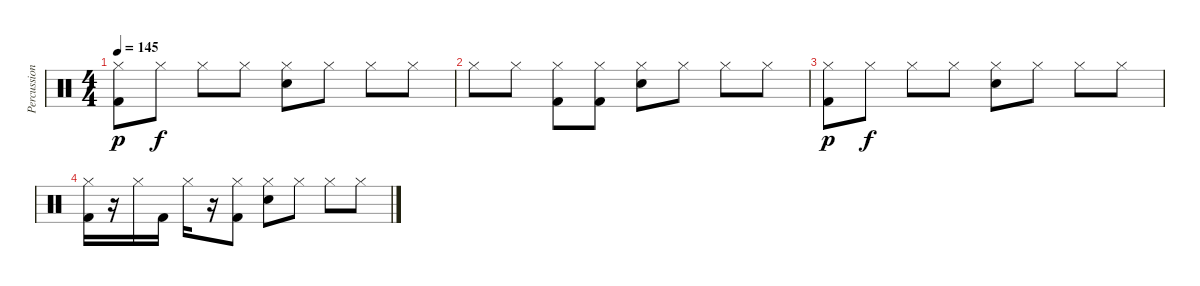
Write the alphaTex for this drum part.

\track ("Percussion" "Percussion") {instrument percussion}
\staff {score}
\articulation defaults
\ts (4 4)
\tempo 145
\clef neutral
\ks c
("Hi-Hat (closed)" "Kick (hit) 2").8{dy p} "Hi-Hat (closed)".8{dy f} "Hi-Hat (closed)".8 "Hi-Hat (closed)".8 ("Hi-Hat (closed)" "Electric Snare (hit)").8 "Hi-Hat (closed)".8 "Hi-Hat (closed)".8 "Hi-Hat (closed)".8 |
"Hi-Hat (closed)".8 "Hi-Hat (closed)".8 ("Hi-Hat (closed)" "Kick (hit) 2").8 ("Hi-Hat (closed)" "Kick (hit) 2").8 ("Hi-Hat (closed)" "Electric Snare (hit)").8 "Hi-Hat (closed)".8 "Hi-Hat (closed)".8 "Hi-Hat (closed)".8 |
("Hi-Hat (closed)" "Kick (hit) 2").8{dy p volume 0} "Hi-Hat (closed)".8{dy f} "Hi-Hat (closed)".8 "Hi-Hat (closed)".8 ("Hi-Hat (closed)" "Electric Snare (hit)").8 "Hi-Hat (closed)".8 "Hi-Hat (closed)".8 "Hi-Hat (closed)".8 |
("Hi-Hat (closed)" "Kick (hit) 2").16 r.16 "Hi-Hat (closed)".16 "Kick (hit) 2".16 "Hi-Hat (closed)".16 r.16 ("Hi-Hat (closed)" "Kick (hit) 2").8 ("Hi-Hat (closed)" "Electric Snare (hit)").8 "Hi-Hat (closed)".8 "Hi-Hat (closed)".8 "Hi-Hat (closed)".8
